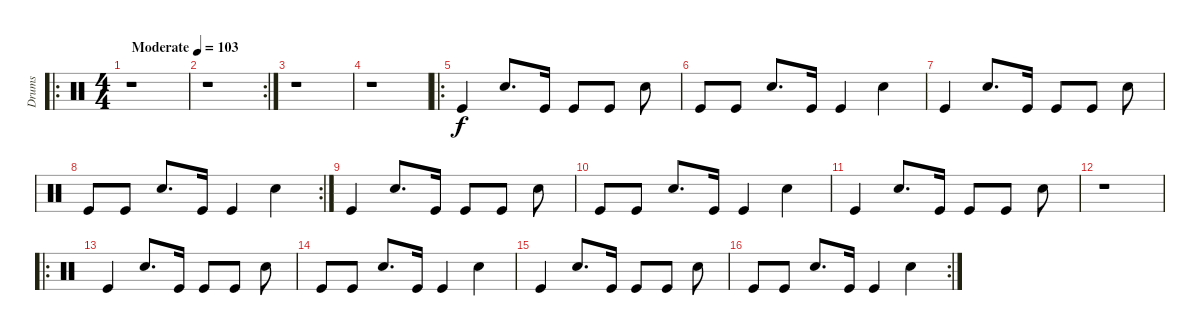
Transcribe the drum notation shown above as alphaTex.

\track ("Drums" "Drums") {instrument percussion}
\staff {score}
\articulation defaults
\ro
\ts (4 4)
\tempo (103 "Moderate")
\clef neutral
\ks c
r.1{dy f} |
\rc 2
r.1 |
r.1 |
r.1 |
\ro "Kick (hit)".4 "Snare (hit) 2".8{d} "Kick (hit)".16 "Kick (hit)".8 "Kick (hit)".8 "Snare (hit) 2".8
|
"Kick (hit)".8 "Kick (hit)".8 "Snare (hit) 2".8{d} "Kick (hit)".16 "Kick (hit)".4 "Snare (hit) 2".4 |
"Kick (hit)".4 "Snare (hit) 2".8{d} "Kick (hit)".16 "Kick (hit)".8 "Kick (hit)".8 "Snare (hit) 2".8 |
\rc 2 "Kick (hit)".8 "Kick (hit)".8 "Snare (hit) 2".8{d} "Kick (hit)".16 "Kick (hit)".4 "Snare (hit) 2".4
|
"Kick (hit)".4 "Snare (hit) 2".8{d} "Kick (hit)".16 "Kick (hit)".8 "Kick (hit)".8 "Snare (hit) 2".8 |
"Kick (hit)".8 "Kick (hit)".8 "Snare (hit) 2".8{d} "Kick (hit)".16 "Kick (hit)".4 "Snare (hit) 2".4 |
"Kick (hit)".4 "Snare (hit) 2".8{d} "Kick (hit)".16 "Kick (hit)".8 "Kick (hit)".8 "Snare (hit) 2".8 |
r.1 |
\ro "Kick (hit)".4 "Snare (hit) 2".8{d} "Kick (hit)".16 "Kick (hit)".8 "Kick (hit)".8 "Snare (hit) 2".8
|
"Kick (hit)".8 "Kick (hit)".8 "Snare (hit) 2".8{d} "Kick (hit)".16 "Kick (hit)".4 "Snare (hit) 2".4 |
"Kick (hit)".4 "Snare (hit) 2".8{d} "Kick (hit)".16 "Kick (hit)".8 "Kick (hit)".8 "Snare (hit) 2".8 |
\rc 2 "Kick (hit)".8 "Kick (hit)".8 "Snare (hit) 2".8{d} "Kick (hit)".16 "Kick (hit)".4 "Snare (hit) 2".4
